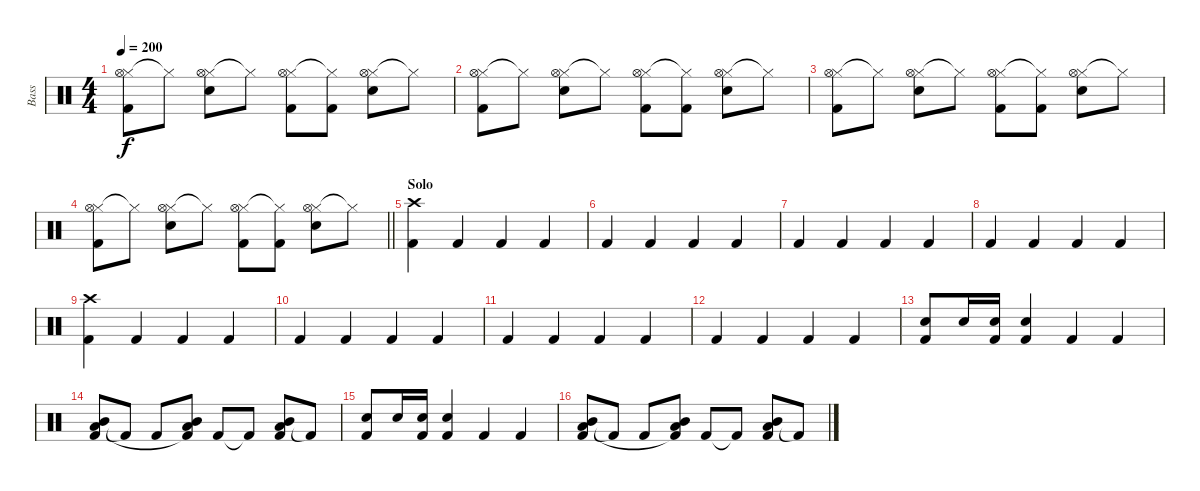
\track ("Bass" "Bass") {instrument percussion}
\staff {score}
\articulation defaults
\ts (4 4)
\tempo 200
\clef neutral
\ks c
("Hi-Hat (closed)" "Hi-Hat (open)" "Kick (hit) 2").8{dy f} "Hi-Hat (closed)"{t}.8 ("Hi-Hat (closed)" "Hi-Hat (open)" "Snare (hit) 2").8 "Hi-Hat (closed)"{t}.8 ("Hi-Hat (closed)" "Hi-Hat (open)" "Kick (hit) 2").8 ("Hi-Hat (closed)"{t} "Kick (hit) 2").8 ("Hi-Hat (closed)" "Hi-Hat (open)" "Snare (hit) 2").8 "Hi-Hat (closed)"{t}.8 |
("Hi-Hat (closed)" "Hi-Hat (open)" "Kick (hit) 2").8 "Hi-Hat (closed)"{t}.8 ("Hi-Hat (closed)" "Hi-Hat (open)" "Snare (hit) 2").8 "Hi-Hat (closed)"{t}.8 ("Hi-Hat (closed)" "Hi-Hat (open)" "Kick (hit) 2").8 ("Hi-Hat (closed)"{t} "Kick (hit) 2").8 ("Hi-Hat (closed)" "Hi-Hat (open)" "Snare (hit) 2").8 "Hi-Hat (closed)"{t}.8 |
("Hi-Hat (closed)" "Hi-Hat (open)" "Kick (hit) 2").8 "Hi-Hat (closed)"{t}.8 ("Hi-Hat (closed)" "Hi-Hat (open)" "Snare (hit) 2").8 "Hi-Hat (closed)"{t}.8 ("Hi-Hat (closed)" "Hi-Hat (open)" "Kick (hit) 2").8 ("Hi-Hat (closed)"{t} "Kick (hit) 2").8 ("Hi-Hat (closed)" "Hi-Hat (open)" "Snare (hit) 2").8 "Hi-Hat (closed)"{t}.8 |
\barLineRight lightlight
("Hi-Hat (closed)" "Hi-Hat (open)" "Kick (hit) 2").8 "Hi-Hat (closed)"{t}.8 ("Hi-Hat (closed)" "Hi-Hat (open)" "Snare (hit) 2").8 "Hi-Hat (closed)"{t}.8 ("Hi-Hat (closed)" "Hi-Hat (open)" "Kick (hit) 2").8 ("Hi-Hat (closed)"{t} "Kick (hit) 2").8 ("Hi-Hat (closed)" "Hi-Hat (open)" "Snare (hit) 2").8 "Hi-Hat (closed)"{t}.8 |
\section ("" "Solo")
("Crash high (hit)" "Kick (hit) 2").4 "Kick (hit) 2".4 "Kick (hit) 2".4 "Kick (hit) 2".4 |
"Kick (hit) 2".4 "Kick (hit) 2".4 "Kick (hit) 2".4 "Kick (hit) 2".4 |
"Kick (hit) 2".4 "Kick (hit) 2".4 "Kick (hit) 2".4 "Kick (hit) 2".4 |
"Kick (hit) 2".4 "Kick (hit) 2".4 "Kick (hit) 2".4 "Kick (hit) 2".4 |
("Crash high (hit)" "Kick (hit) 2").4 "Kick (hit) 2".4 "Kick (hit) 2".4 "Kick (hit) 2".4 |
"Kick (hit) 2".4 "Kick (hit) 2".4 "Kick (hit) 2".4 "Kick (hit) 2".4 |
"Kick (hit) 2".4 "Kick (hit) 2".4 "Kick (hit) 2".4 "Kick (hit) 2".4 |
"Kick (hit) 2".4 "Kick (hit) 2".4 "Kick (hit) 2".4 "Kick (hit) 2".4 |
("Snare (hit) 2" "Kick (hit) 2").8 "Snare (hit) 2".16 ("Snare (hit) 2" "Kick (hit) 2").16 ("Snare (hit) 2" "Kick (hit) 2").4 "Kick (hit) 2".4 "Kick (hit) 2".4 |
("Mid Tom (hit)" "Low Floor Tom (hit)" "Kick (hit) 2").8 "Kick (hit) 2"{t}.8 "Kick (hit) 2".8 ("Mid Tom (hit)" "Low Floor Tom (hit)" "Kick (hit) 2"{t}).8 "Kick (hit) 2".8 "Kick (hit) 2"{t}.8 ("Mid Tom (hit)" "Low Floor Tom (hit)" "Kick (hit) 2").8 "Kick (hit) 2"{t}.8 |
("Snare (hit) 2" "Kick (hit) 2").8 "Snare (hit) 2".16 ("Snare (hit) 2" "Kick (hit) 2").16 ("Snare (hit) 2" "Kick (hit) 2").4 "Kick (hit) 2".4 "Kick (hit) 2".4 |
("Mid Tom (hit)" "Low Floor Tom (hit)" "Kick (hit) 2").8 "Kick (hit) 2"{t}.8 "Kick (hit) 2".8 ("Mid Tom (hit)" "Low Floor Tom (hit)" "Kick (hit) 2"{t}).8 "Kick (hit) 2".8 "Kick (hit) 2"{t}.8 ("Mid Tom (hit)" "Low Floor Tom (hit)" "Kick (hit) 2").8 "Kick (hit) 2"{t}.8
